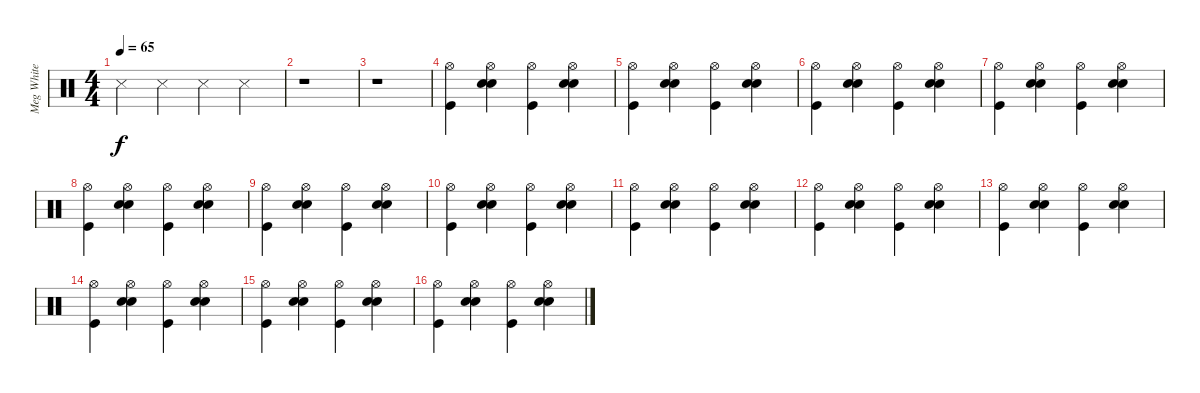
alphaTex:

\track ("Meg White" "Meg White") {instrument percussion}
\staff {score}
\articulation defaults
\ts (4 4)
\tempo 65
\clef neutral
\ks c "Metronome (hit)".4{dy f} "Metronome (hit)".4 "Metronome (hit)".4 "Metronome (hit)".4
|
r.1 |
r.1 |
("Kick (hit)" "Hi-Hat (open)").4 ("Electric Snare (hit)" "Electric Snare (hit)" "Hi-Hat (open)").4 ("Kick (hit)" "Hi-Hat (open)").4 ("Electric Snare (hit)" "Electric Snare (hit)" "Hi-Hat (open)").4 |
("Kick (hit)" "Hi-Hat (open)").4 ("Electric Snare (hit)" "Electric Snare (hit)" "Hi-Hat (open)").4 ("Kick (hit)" "Hi-Hat (open)").4 ("Electric Snare (hit)" "Electric Snare (hit)" "Hi-Hat (open)").4 |
("Kick (hit)" "Hi-Hat (open)").4 ("Electric Snare (hit)" "Electric Snare (hit)" "Hi-Hat (open)").4 ("Kick (hit)" "Hi-Hat (open)").4 ("Electric Snare (hit)" "Electric Snare (hit)" "Hi-Hat (open)").4 |
("Kick (hit)" "Hi-Hat (open)").4 ("Electric Snare (hit)" "Electric Snare (hit)" "Hi-Hat (open)").4 ("Kick (hit)" "Hi-Hat (open)").4 ("Electric Snare (hit)" "Electric Snare (hit)" "Hi-Hat (open)").4 |
("Kick (hit)" "Hi-Hat (open)").4 ("Electric Snare (hit)" "Electric Snare (hit)" "Hi-Hat (open)").4 ("Kick (hit)" "Hi-Hat (open)").4 ("Electric Snare (hit)" "Electric Snare (hit)" "Hi-Hat (open)").4 |
("Kick (hit)" "Hi-Hat (open)").4 ("Electric Snare (hit)" "Electric Snare (hit)" "Hi-Hat (open)").4 ("Kick (hit)" "Hi-Hat (open)").4 ("Electric Snare (hit)" "Electric Snare (hit)" "Hi-Hat (open)").4 |
("Kick (hit)" "Hi-Hat (open)").4 ("Electric Snare (hit)" "Electric Snare (hit)" "Hi-Hat (open)").4 ("Kick (hit)" "Hi-Hat (open)").4 ("Electric Snare (hit)" "Electric Snare (hit)" "Hi-Hat (open)").4 |
("Kick (hit)" "Hi-Hat (open)").4 ("Electric Snare (hit)" "Electric Snare (hit)" "Hi-Hat (open)").4 ("Kick (hit)" "Hi-Hat (open)").4 ("Electric Snare (hit)" "Electric Snare (hit)" "Hi-Hat (open)").4 |
("Kick (hit)" "Hi-Hat (open)").4 ("Electric Snare (hit)" "Electric Snare (hit)" "Hi-Hat (open)").4 ("Kick (hit)" "Hi-Hat (open)").4 ("Electric Snare (hit)" "Electric Snare (hit)" "Hi-Hat (open)").4 |
("Kick (hit)" "Hi-Hat (open)").4 ("Electric Snare (hit)" "Electric Snare (hit)" "Hi-Hat (open)").4 ("Kick (hit)" "Hi-Hat (open)").4 ("Electric Snare (hit)" "Electric Snare (hit)" "Hi-Hat (open)").4 |
("Kick (hit)" "Hi-Hat (open)").4 ("Electric Snare (hit)" "Electric Snare (hit)" "Hi-Hat (open)").4 ("Kick (hit)" "Hi-Hat (open)").4 ("Electric Snare (hit)" "Electric Snare (hit)" "Hi-Hat (open)").4 |
("Kick (hit)" "Hi-Hat (open)").4 ("Electric Snare (hit)" "Electric Snare (hit)" "Hi-Hat (open)").4 ("Kick (hit)" "Hi-Hat (open)").4 ("Electric Snare (hit)" "Electric Snare (hit)" "Hi-Hat (open)").4 |
("Kick (hit)" "Hi-Hat (open)").4 ("Electric Snare (hit)" "Electric Snare (hit)" "Hi-Hat (open)").4 ("Kick (hit)" "Hi-Hat (open)").4 ("Electric Snare (hit)" "Electric Snare (hit)" "Hi-Hat (open)").4
